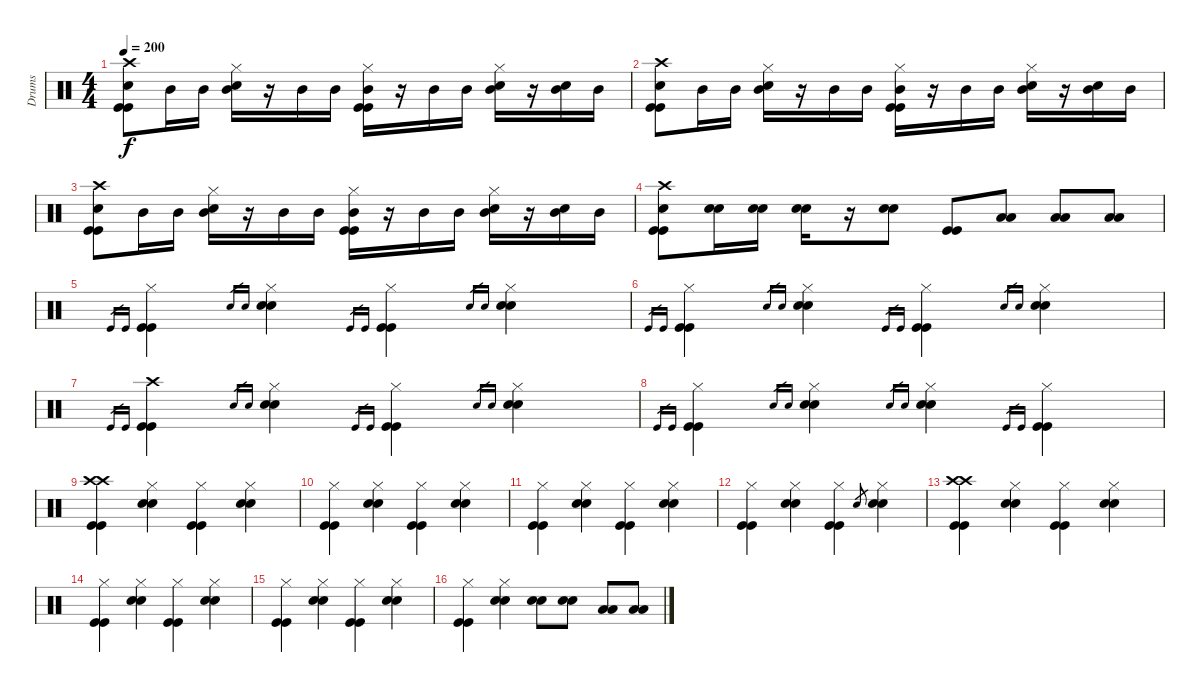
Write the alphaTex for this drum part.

\track ("Drums" "Drums") {instrument percussion}
\staff {score}
\articulation defaults
\ts (4 4)
\tempo 200
\clef neutral
\ks c
("Crash high (hit)" "Electric Snare (hit)" "Kick (hit)" "Kick (hit)").8{dy f} "Mid Tom (hit)".16 "Mid Tom (hit)".16 ("Hi-Hat (closed)" "Electric Snare (hit)" "Mid Tom (hit)").16 r.16 "Mid Tom (hit)".16 "Mid Tom (hit)".16 ("Hi-Hat (closed)" "Mid Tom (hit)" "Kick (hit)" "Kick (hit)").16 r.16 "Mid Tom (hit)".16 "Mid Tom (hit)".16 ("Hi-Hat (closed)" "Electric Snare (hit)" "Mid Tom (hit)").16 r.16 ("Electric Snare (hit)" "Mid Tom (hit)").16 "Mid Tom (hit)".16 |
("Crash high (hit)" "Electric Snare (hit)" "Kick (hit)" "Kick (hit)").8 "Mid Tom (hit)".16 "Mid Tom (hit)".16 ("Hi-Hat (closed)" "Electric Snare (hit)" "Mid Tom (hit)").16 r.16 "Mid Tom (hit)".16 "Mid Tom (hit)".16 ("Hi-Hat (closed)" "Mid Tom (hit)" "Kick (hit)" "Kick (hit)").16 r.16 "Mid Tom (hit)".16 "Mid Tom (hit)".16 ("Hi-Hat (closed)" "Electric Snare (hit)" "Mid Tom (hit)").16 r.16 ("Electric Snare (hit)" "Mid Tom (hit)").16 "Mid Tom (hit)".16 |
("Crash high (hit)" "Electric Snare (hit)" "Kick (hit)" "Kick (hit)").8 "Mid Tom (hit)".16 "Mid Tom (hit)".16 ("Hi-Hat (closed)" "Electric Snare (hit)" "Mid Tom (hit)").16 r.16 "Mid Tom (hit)".16 "Mid Tom (hit)".16 ("Hi-Hat (closed)" "Mid Tom (hit)" "Kick (hit)" "Kick (hit)").16 r.16 "Mid Tom (hit)".16 "Mid Tom (hit)".16 ("Hi-Hat (closed)" "Electric Snare (hit)" "Mid Tom (hit)").16 r.16 ("Electric Snare (hit)" "Mid Tom (hit)").16 "Mid Tom (hit)".16 |
("Crash high (hit)" "Electric Snare (hit)" "Kick (hit)" "Kick (hit)").8 ("Snare (hit) 2" "Snare (hit) 2").16 ("Snare (hit) 2" "Snare (hit) 2").16 ("Snare (hit) 2" "Snare (hit) 2").16 r.16 ("Snare (hit) 2" "Snare (hit) 2").8 ("Kick (hit)" "Kick (hit)").8 ("Low Tom (hit)" "Low Tom (hit)").8 ("Low Tom (hit)" "Low Tom (hit)").8 ("Low Tom (hit)" "Low Tom (hit)").8 |
"Kick (hit)".16{gr} "Kick (hit)".16{gr} ("Hi-Hat (closed)" "Kick (hit)" "Kick (hit)").4 "Electric Snare (hit)".16{gr} "Electric Snare (hit)".16{gr} ("Hi-Hat (closed)" "Electric Snare (hit)" "Electric Snare (hit)").4 "Kick (hit)".16{gr} "Kick (hit)".16{gr} ("Hi-Hat (closed)" "Kick (hit)" "Kick (hit)").4 "Electric Snare (hit)".16{gr} "Electric Snare (hit)".16{gr} ("Hi-Hat (closed)" "Electric Snare (hit)" "Electric Snare (hit)").4 |
"Kick (hit)".16{gr} "Kick (hit)".16{gr} ("Hi-Hat (closed)" "Kick (hit)" "Kick (hit)").4 "Electric Snare (hit)".16{gr} "Electric Snare (hit)".16{gr} ("Hi-Hat (closed)" "Electric Snare (hit)" "Electric Snare (hit)").4 "Kick (hit)".16{gr} "Kick (hit)".16{gr} ("Hi-Hat (closed)" "Kick (hit)" "Kick (hit)").4 "Electric Snare (hit)".16{gr} "Electric Snare (hit)".16{gr} ("Hi-Hat (closed)" "Electric Snare (hit)" "Electric Snare (hit)").4 |
"Kick (hit)".16{gr} "Kick (hit)".16{gr} ("Crash high (hit)" "Kick (hit)" "Kick (hit)").4 "Electric Snare (hit)".16{gr} "Electric Snare (hit)".16{gr} ("Hi-Hat (closed)" "Electric Snare (hit)" "Electric Snare (hit)").4 "Kick (hit)".16{gr} "Kick (hit)".16{gr} ("Hi-Hat (closed)" "Kick (hit)" "Kick (hit)").4 "Electric Snare (hit)".16{gr} "Electric Snare (hit)".16{gr} ("Hi-Hat (closed)" "Electric Snare (hit)" "Electric Snare (hit)").4 |
"Kick (hit)".16{gr} "Kick (hit)".16{gr} ("Hi-Hat (closed)" "Kick (hit)" "Kick (hit)").4 "Electric Snare (hit)".16{gr} "Electric Snare (hit)".16{gr} ("Hi-Hat (closed)" "Electric Snare (hit)" "Electric Snare (hit)").4 "Electric Snare (hit)".16{gr} "Electric Snare (hit)".16{gr} ("Hi-Hat (closed)" "Electric Snare (hit)" "Electric Snare (hit)").4 "Kick (hit)".16{gr} "Kick (hit)".16{gr} ("Hi-Hat (closed)" "Kick (hit)" "Kick (hit)").4 |
("Crash high (hit)" "Crash high (hit)" "Kick (hit)" "Kick (hit)").4 ("Hi-Hat (closed)" "Electric Snare (hit)" "Electric Snare (hit)").4 ("Hi-Hat (closed)" "Kick (hit)" "Kick (hit)").4 ("Hi-Hat (closed)" "Electric Snare (hit)" "Electric Snare (hit)").4 |
("Hi-Hat (closed)" "Kick (hit)" "Kick (hit)").4 ("Hi-Hat (closed)" "Electric Snare (hit)" "Electric Snare (hit)").4 ("Hi-Hat (closed)" "Kick (hit)" "Kick (hit)").4 ("Hi-Hat (closed)" "Electric Snare (hit)" "Electric Snare (hit)").4 |
("Hi-Hat (closed)" "Kick (hit)" "Kick (hit)").4 ("Hi-Hat (closed)" "Electric Snare (hit)" "Electric Snare (hit)").4 ("Hi-Hat (closed)" "Kick (hit)" "Kick (hit)").4 ("Hi-Hat (closed)" "Electric Snare (hit)" "Electric Snare (hit)").4 |
("Hi-Hat (closed)" "Kick (hit)" "Kick (hit)").4 ("Hi-Hat (closed)" "Electric Snare (hit)" "Electric Snare (hit)").4 ("Hi-Hat (closed)" "Kick (hit)" "Kick (hit)").4 "Electric Snare (hit)".8{gr} ("Hi-Hat (closed)" "Electric Snare (hit)" "Electric Snare (hit)").4 |
("Crash high (hit)" "Crash high (hit)" "Kick (hit)" "Kick (hit)").4 ("Hi-Hat (closed)" "Electric Snare (hit)" "Electric Snare (hit)").4 ("Hi-Hat (closed)" "Kick (hit)" "Kick (hit)").4 ("Hi-Hat (closed)" "Electric Snare (hit)" "Electric Snare (hit)").4 |
("Hi-Hat (closed)" "Kick (hit)" "Kick (hit)").4 ("Hi-Hat (closed)" "Electric Snare (hit)" "Electric Snare (hit)").4 ("Hi-Hat (closed)" "Kick (hit)" "Kick (hit)").4 ("Hi-Hat (closed)" "Electric Snare (hit)" "Electric Snare (hit)").4 |
("Hi-Hat (closed)" "Kick (hit)" "Kick (hit)").4 ("Hi-Hat (closed)" "Electric Snare (hit)" "Electric Snare (hit)").4 ("Hi-Hat (closed)" "Kick (hit)" "Kick (hit)").4 ("Hi-Hat (closed)" "Electric Snare (hit)" "Electric Snare (hit)").4 |
("Hi-Hat (closed)" "Kick (hit)" "Kick (hit)").4 ("Hi-Hat (closed)" "Electric Snare (hit)" "Electric Snare (hit)").4 ("Electric Snare (hit)" "Electric Snare (hit)").8 ("Electric Snare (hit)" "Electric Snare (hit)").8 ("Low Tom (hit)" "Low Tom (hit)").8 ("Low Tom (hit)" "Low Tom (hit)").8
